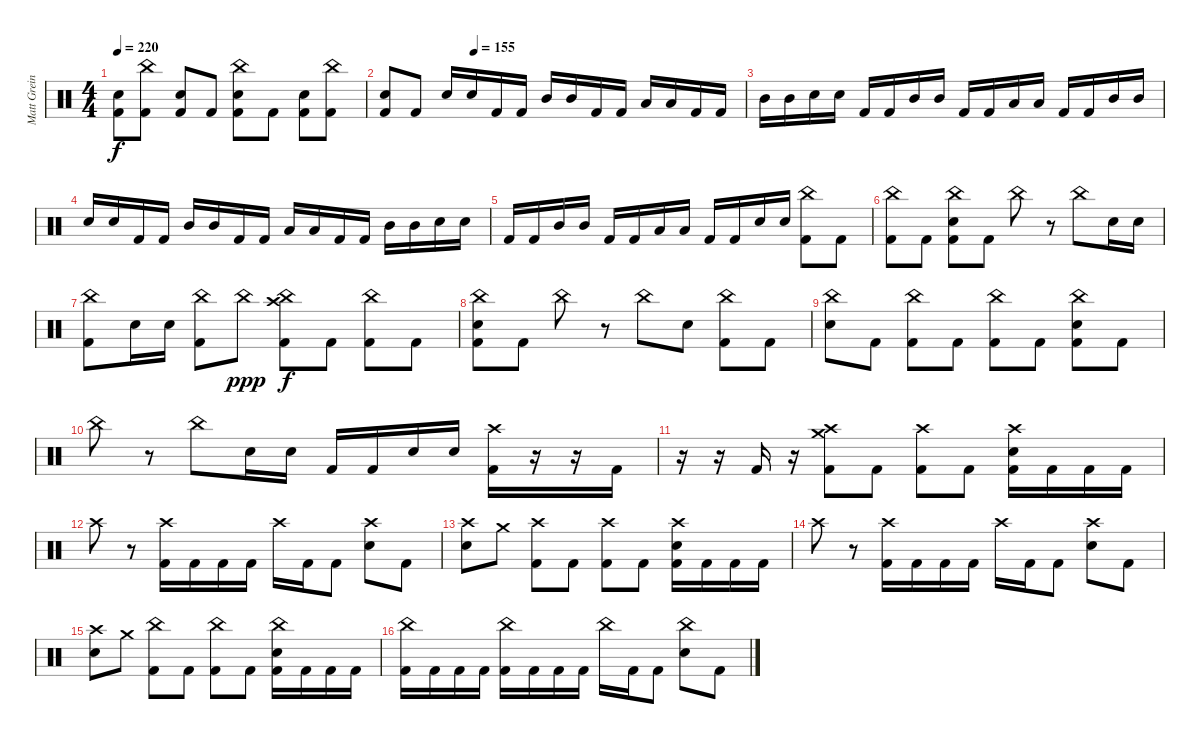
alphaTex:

\track ("Matt Greiner (Drums)" "Matt Grein") {instrument percussion}
\staff {score}
\articulation defaults
\ts (4 4)
\tempo 220
\clef neutral
\ks c
("Electric Snare (hit)" "Kick (hit) 2").8{dy f} ("China (hit)" "Kick (hit) 2").8 ("Electric Snare (hit)" "Kick (hit) 2").8 "Kick (hit) 2".8 ("China (hit)" "Electric Snare (hit)" "Kick (hit) 2").8 "Kick (hit) 2".8 ("Electric Snare (hit)" "Kick (hit) 2").8 ("China (hit)" "Kick (hit) 2").8 |
\tempo (155 0.25)
("Electric Snare (hit)" "Kick (hit) 2").8 "Kick (hit) 2".8 "Electric Snare (hit)".16 "Electric Snare (hit)".16 "Kick (hit) 2".16 "Kick (hit) 2".16 "Mid Tom (hit)".16 "Mid Tom (hit)".16 "Kick (hit) 2".16 "Kick (hit) 2".16 "Low Tom (hit)".16 "Low Tom (hit)".16 "Kick (hit) 2".16 "Kick (hit) 2".16 |
"Mid Tom (hit)".16 "Mid Tom (hit)".16 "Electric Snare (hit)".16 "Electric Snare (hit)".16 "Kick (hit) 2".16 "Kick (hit) 2".16 "Mid Tom (hit)".16 "Mid Tom (hit)".16 "Kick (hit) 2".16 "Kick (hit) 2".16 "Low Tom (hit)".16 "Low Tom (hit)".16 "Kick (hit) 2".16 "Kick (hit) 2".16 "Mid Tom (hit)".16 "Mid Tom (hit)".16 |
"Electric Snare (hit)".16 "Electric Snare (hit)".16 "Kick (hit) 2".16 "Kick (hit) 2".16 "Mid Tom (hit)".16 "Mid Tom (hit)".16 "Kick (hit) 2".16 "Kick (hit) 2".16 "Low Tom (hit)".16 "Low Tom (hit)".16 "Kick (hit) 2".16 "Kick (hit) 2".16 "Mid Tom (hit)".16 "Mid Tom (hit)".16 "Electric Snare (hit)".16 "Electric Snare (hit)".16 |
"Kick (hit) 2".16 "Kick (hit) 2".16 "Mid Tom (hit)".16 "Mid Tom (hit)".16 "Kick (hit) 2".16 "Kick (hit) 2".16 "Low Tom (hit)".16 "Low Tom (hit)".16 "Kick (hit) 2".16 "Kick (hit) 2".16 "Electric Snare (hit)".16 "Electric Snare (hit)".16 ("China (hit)" "Kick (hit) 2").8 "Kick (hit) 2".8 |
("China (hit)" "Kick (hit) 2").8 "Kick (hit) 2".8 ("China (hit)" "Electric Snare (hit)" "Kick (hit) 2").8 "Kick (hit) 2".8 "China (hit)".8 r.8 "China (hit)".8 "Electric Snare (hit)".16 "Electric Snare (hit)".16 |
("China (hit)" "Kick (hit) 2").8 "Electric Snare (hit)".16 "Electric Snare (hit)".16 ("China (hit)" "Kick (hit) 2").8 "China (hit)".8{dy ppp} ("Crash high (hit)" "China (hit)" "Kick (hit) 2").8{dy f} "Kick (hit) 2".8 ("China (hit)" "Kick (hit) 2").8 "Kick (hit) 2".8 |
("China (hit)" "Electric Snare (hit)" "Kick (hit) 2").8 "Kick (hit) 2".8 "China (hit)".8 r.8 "China (hit)".8 "Electric Snare (hit)".8 ("China (hit)" "Kick (hit) 2").8 "Kick (hit) 2".8 |
("China (hit)" "Electric Snare (hit)").8 "Kick (hit) 2".8 ("China (hit)" "Kick (hit) 2").8 "Kick (hit) 2".8 ("China (hit)" "Kick (hit) 2").8 "Kick (hit) 2".8 ("China (hit)" "Electric Snare (hit)" "Kick (hit) 2").8 "Kick (hit) 2".8 |
"China (hit)".8 r.8 "China (hit)".8 "Electric Snare (hit)".16 "Electric Snare (hit)".16 "Kick (hit) 2".16 "Kick (hit) 2".16 "Electric Snare (hit)".16 "Electric Snare (hit)".16 ("Crash high (hit)" "Kick (hit) 2").16 r.16 r.16 "Kick (hit) 2".16 |
r.16 r.16 "Kick (hit) 2".16 r.16 ("Crash medium (hit)" "Crash high (hit)" "Kick (hit) 2").8 "Kick (hit) 2".8 ("Crash high (hit)" "Kick (hit) 2").8 "Kick (hit) 2".8 ("Crash high (hit)" "Electric Snare (hit)" "Kick (hit) 2").16 "Kick (hit) 2".16 "Kick (hit) 2".16 "Kick (hit) 2".16 |
"Crash high (hit)".8 r.8 ("Crash high (hit)" "Kick (hit) 2").16 "Kick (hit) 2".16 "Kick (hit) 2".16 "Kick (hit) 2".16 "Crash high (hit)".16 "Kick (hit) 2".16 "Kick (hit) 2".8 ("Crash high (hit)" "Electric Snare (hit)").8 "Kick (hit) 2".8 |
("Crash high (hit)" "Electric Snare (hit)").8 "Crash medium (hit)".8 ("Crash high (hit)" "Kick (hit) 2").8 "Kick (hit) 2".8 ("Crash high (hit)" "Kick (hit) 2").8 "Kick (hit) 2".8 ("Crash high (hit)" "Electric Snare (hit)" "Kick (hit) 2").16 "Kick (hit) 2".16 "Kick (hit) 2".16 "Kick (hit) 2".16 |
"Crash high (hit)".8 r.8 ("Crash high (hit)" "Kick (hit) 2").16 "Kick (hit) 2".16 "Kick (hit) 2".16 "Kick (hit) 2".16 "Crash high (hit)".16 "Kick (hit) 2".16 "Kick (hit) 2".8 ("Crash high (hit)" "Electric Snare (hit)").8 "Kick (hit) 2".8 |
("Crash high (hit)" "Electric Snare (hit)").8 "Crash medium (hit)".8 ("China (hit)" "Kick (hit) 2").8 "Kick (hit) 2".8 ("China (hit)" "Kick (hit) 2").8 "Kick (hit) 2".8 ("China (hit)" "Electric Snare (hit)" "Kick (hit) 2").16 "Kick (hit) 2".16 "Kick (hit) 2".16 "Kick (hit) 2".16 |
("China (hit)" "Kick (hit) 2").16 "Kick (hit) 2".16 "Kick (hit) 2".16 "Kick (hit) 2".16 ("China (hit)" "Kick (hit) 2").16 "Kick (hit) 2".16 "Kick (hit) 2".16 "Kick (hit) 2".16 "China (hit)".16 "Kick (hit) 2".16 "Kick (hit) 2".8 ("China (hit)" "Electric Snare (hit)").8 "Kick (hit) 2".8
